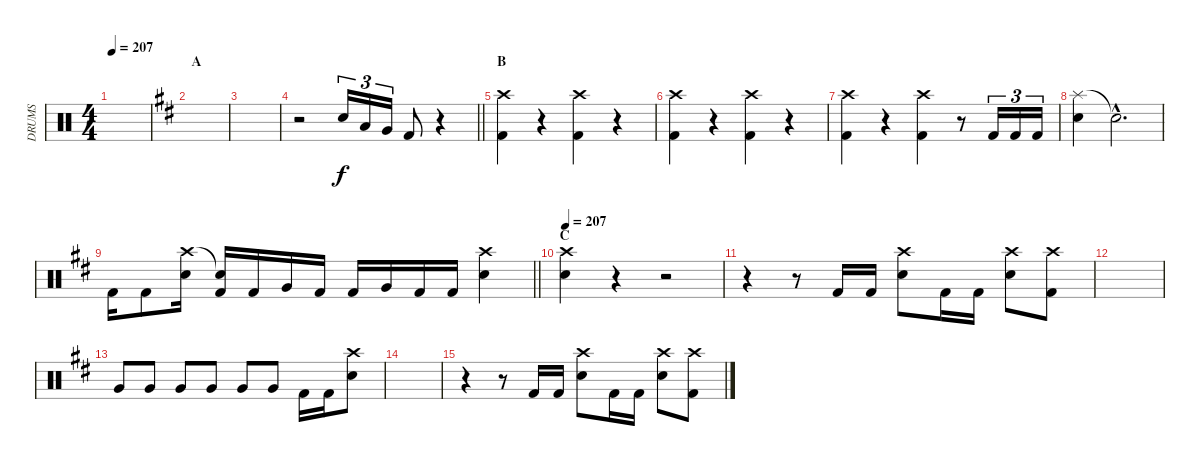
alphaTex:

\track ("DRUMS" "DRUMS") {instrument percussion}
\staff {score}
\articulation defaults
\ts (4 4)
\tempo 207
\clef neutral
\ks c
|
\section ("" "A")
\ks d
|
|
\barLineRight lightlight
r.2 "Snare (hit) 2".16{tu (3 2)} "Low Tom (hit)".16{tu (3 2)} "Very Low Tom (hit)".16{tu (3 2)} "Kick (hit) 2".8 r.4 |
\section ("" "B")
("Crash high (hit)" "Kick (hit) 2").4 r.4 ("Crash high (hit)" "Kick (hit) 2").4 r.4 |
("Crash high (hit)" "Kick (hit) 2").4 r.4 ("Crash high (hit)" "Kick (hit) 2").4 r.4 |
("Crash high (hit)" "Kick (hit) 2").4 r.4 ("Crash high (hit)" "Kick (hit) 2").4 r.8 "Kick (hit) 2".16{tu (3 2)} "Kick (hit) 2".16{tu (3 2)} "Kick (hit) 2".16{tu (3 2)} |
("Splash (hit)" "Snare (hit) 2").4 "Snare (hit)"{hac t}.2{d} |
\barLineRight lightlight "Kick (hit) 2".16 "Kick (hit) 2".8
("Crash high (hit)" "Snare (hit) 2").16 ("Snare (hit)"{t} "Kick (hit) 2").16 "Kick (hit) 2".16 "Very Low Tom (hit)".16 "Kick (hit) 2".16 "Kick (hit) 2".16 "Very Low Tom (hit)".16 "Kick (hit) 2".16 "Kick (hit) 2".16 ("Crash high (hit)" "Snare (hit) 2").4 |
\section ("" "C")
\tempo 207
("Crash high (hit)" "Snare (hit) 2").4 r.4 r.2 |
r.4 r.8 "Kick (hit) 2".16 "Kick (hit) 2".16 ("Crash high (hit)" "Snare (hit) 2").8 "Kick (hit) 2".16 "Kick (hit) 2".16 ("Crash high (hit)" "Snare (hit) 2").8 ("Crash high (hit)" "Kick (hit) 2").8 |
|
"Very Low Tom (hit)".8 "Very Low Tom (hit)".8 "Very Low Tom (hit)".8 "Very Low Tom (hit)".8 "Very Low Tom (hit)".8 "Very Low Tom (hit)".8 "Kick (hit) 2".16 "Kick (hit) 2".16 ("Crash high (hit)" "Snare (hit) 2").8 |
|
r.4 r.8 "Kick (hit) 2".16 "Kick (hit) 2".16 ("Crash high (hit)" "Snare (hit) 2").8 "Kick (hit) 2".16 "Kick (hit) 2".16 ("Crash high (hit)" "Snare (hit) 2").8 ("Crash high (hit)" "Kick (hit) 2").8
